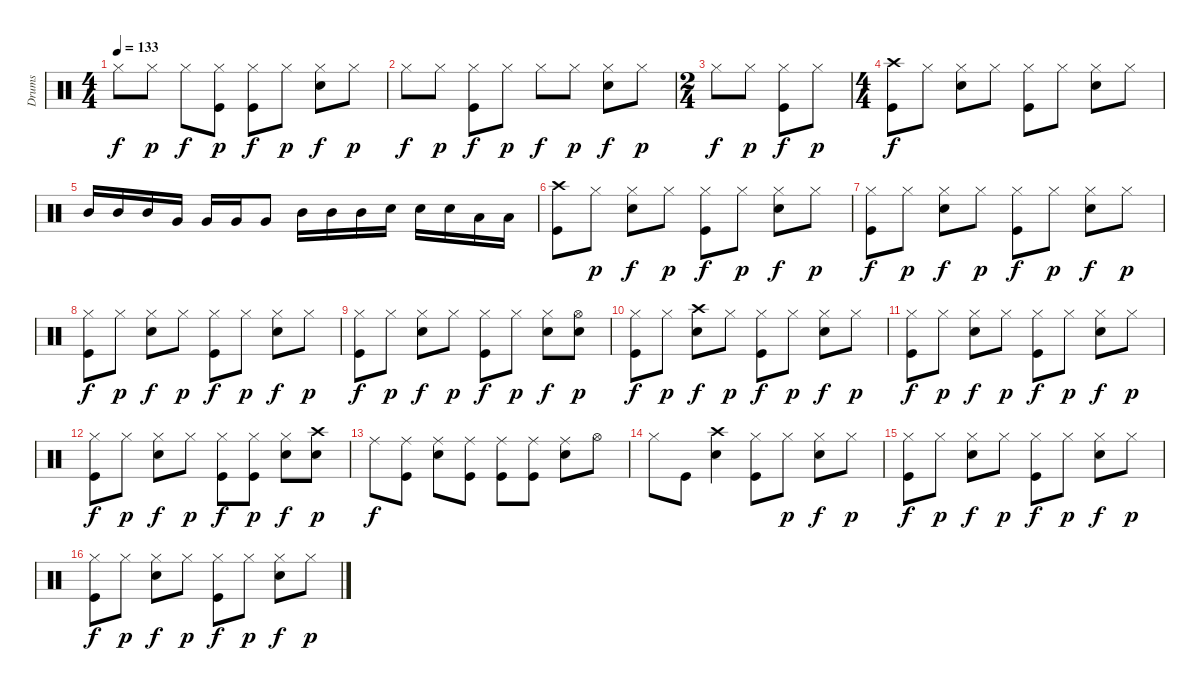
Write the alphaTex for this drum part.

\track ("Drums" "Drums") {instrument percussion}
\staff {score}
\articulation defaults
\ts (4 4)
\tempo 133
\clef neutral
\ks c "Hi-Hat (closed)".8{dy f} "Hi-Hat (closed)".8{dy p} "Hi-Hat (closed)".8{dy f}
("Hi-Hat (closed)" "Kick (hit)").8{dy p} ("Hi-Hat (closed)" "Kick (hit)").8{dy f} "Hi-Hat (closed)".8{dy p} ("Hi-Hat (closed)" "Snare (hit) 2").8{dy f} "Hi-Hat (closed)".8{dy p} |
"Hi-Hat (closed)".8{dy f} "Hi-Hat (closed)".8{dy p} ("Hi-Hat (closed)" "Kick (hit)").8{dy f} "Hi-Hat (closed)".8{dy p} "Hi-Hat (closed)".8{dy f} "Hi-Hat (closed)".8{dy p} ("Hi-Hat (closed)" "Snare (hit) 2").8{dy f} "Hi-Hat (closed)".8{dy p} |
\ts (2 4)
"Hi-Hat (closed)".8{dy f} "Hi-Hat (closed)".8{dy p} ("Hi-Hat (closed)" "Kick (hit)").8{dy f} "Hi-Hat (closed)".8{dy p} |
\ts (4 4)
("Crash high (hit)" "Kick (hit)").8{dy f} "Hi-Hat (closed)".8 ("Hi-Hat (closed)" "Snare (hit) 2").8 "Hi-Hat (closed)".8 ("Hi-Hat (closed)" "Kick (hit)").8 "Hi-Hat (closed)".8 ("Hi-Hat (closed)" "Snare (hit) 2").8 "Hi-Hat (closed)".8 |
"Mid Tom (hit)".16 "Mid Tom (hit)".16 "Mid Tom (hit)".16 "Very Low Tom (hit)".16 "Very Low Tom (hit)".16 "Very Low Tom (hit)".16 "Very Low Tom (hit)".8 "Mid Tom (hit)".16 "Mid Tom (hit)".16 "Mid Tom (hit)".16 "Snare (hit) 2".16 "Snare (hit) 2".16 "Snare (hit) 2".16 "Low Tom (hit)".16 "Low Tom (hit)".16 |
("Crash high (hit)" "Kick (hit)").8 "Hi-Hat (closed)".8{dy p} ("Hi-Hat (closed)" "Snare (hit) 2").8{dy f} "Hi-Hat (closed)".8{dy p} ("Hi-Hat (closed)" "Kick (hit)").8{dy f} "Hi-Hat (closed)".8{dy p} ("Hi-Hat (closed)" "Snare (hit) 2").8{dy f} "Hi-Hat (closed)".8{dy p} |
("Hi-Hat (closed)" "Kick (hit)").8{dy f} "Hi-Hat (closed)".8{dy p} ("Hi-Hat (closed)" "Snare (hit) 2").8{dy f} "Hi-Hat (closed)".8{dy p} ("Hi-Hat (closed)" "Kick (hit)").8{dy f} "Hi-Hat (closed)".8{dy p} ("Hi-Hat (closed)" "Snare (hit) 2").8{dy f} "Hi-Hat (closed)".8{dy p} |
("Hi-Hat (closed)" "Kick (hit)").8{dy f} "Hi-Hat (closed)".8{dy p} ("Hi-Hat (closed)" "Snare (hit) 2").8{dy f} "Hi-Hat (closed)".8{dy p} ("Hi-Hat (closed)" "Kick (hit)").8{dy f} "Hi-Hat (closed)".8{dy p} ("Hi-Hat (closed)" "Snare (hit) 2").8{dy f} "Hi-Hat (closed)".8{dy p} |
("Hi-Hat (closed)" "Kick (hit)").8{dy f} "Hi-Hat (closed)".8{dy p} ("Hi-Hat (closed)" "Snare (hit) 2").8{dy f} "Hi-Hat (closed)".8{dy p} ("Hi-Hat (closed)" "Kick (hit)").8{dy f} "Hi-Hat (closed)".8{dy p} ("Hi-Hat (closed)" "Snare (hit) 2").8{dy f} ("Hi-Hat (open)" "Snare (hit) 2").8{dy p} |
("Hi-Hat (closed)" "Kick (hit)").8{dy f} "Hi-Hat (closed)".8{dy p} ("Crash high (hit)" "Snare (hit) 2").8{dy f} "Hi-Hat (closed)".8{dy p} ("Hi-Hat (closed)" "Kick (hit)").8{dy f} "Hi-Hat (closed)".8{dy p} ("Hi-Hat (closed)" "Snare (hit) 2").8{dy f} "Hi-Hat (closed)".8{dy p} |
("Hi-Hat (closed)" "Kick (hit)").8{dy f} "Hi-Hat (closed)".8{dy p} ("Hi-Hat (closed)" "Snare (hit) 2").8{dy f} "Hi-Hat (closed)".8{dy p} ("Hi-Hat (closed)" "Kick (hit)").8{dy f} "Hi-Hat (closed)".8{dy p} ("Hi-Hat (closed)" "Snare (hit) 2").8{dy f} "Hi-Hat (closed)".8{dy p} |
("Hi-Hat (closed)" "Kick (hit)").8{dy f} "Hi-Hat (closed)".8{dy p} ("Hi-Hat (closed)" "Snare (hit) 2").8{dy f} "Hi-Hat (closed)".8{dy p} ("Hi-Hat (closed)" "Kick (hit)").8{dy f} ("Hi-Hat (closed)" "Kick (hit)").8{dy p} ("Hi-Hat (closed)" "Snare (hit) 2").8{dy f} ("Crash high (hit)" "Snare (hit) 2").8{dy p} |
"Ride (middle)".8{dy f} ("Ride (middle)" "Kick (hit)").8 ("Ride (middle)" "Snare (hit) 2").8 ("Ride (middle)" "Kick (hit)").8 ("Ride (middle)" "Kick (hit)").8 ("Ride (middle)" "Kick (hit)").8 ("Ride (middle)" "Snare (hit) 2").8 "Hi-Hat (open)".8 |
"Hi-Hat (closed)".8 "Kick (hit)".8 ("Crash high (hit)" "Snare (hit) 2").4 ("Hi-Hat (closed)" "Kick (hit)").8 "Hi-Hat (closed)".8{dy p} ("Hi-Hat (closed)" "Snare (hit) 2").8{dy f} "Hi-Hat (closed)".8{dy p} |
("Hi-Hat (closed)" "Kick (hit)").8{dy f} "Hi-Hat (closed)".8{dy p} ("Hi-Hat (closed)" "Snare (hit) 2").8{dy f} "Hi-Hat (closed)".8{dy p} ("Hi-Hat (closed)" "Kick (hit)").8{dy f} "Hi-Hat (closed)".8{dy p} ("Hi-Hat (closed)" "Snare (hit) 2").8{dy f} "Hi-Hat (closed)".8{dy p} |
("Hi-Hat (closed)" "Kick (hit)").8{dy f} "Hi-Hat (closed)".8{dy p} ("Hi-Hat (closed)" "Snare (hit) 2").8{dy f} "Hi-Hat (closed)".8{dy p} ("Hi-Hat (closed)" "Kick (hit)").8{dy f} "Hi-Hat (closed)".8{dy p} ("Hi-Hat (closed)" "Snare (hit) 2").8{dy f} "Hi-Hat (closed)".8{dy p}
